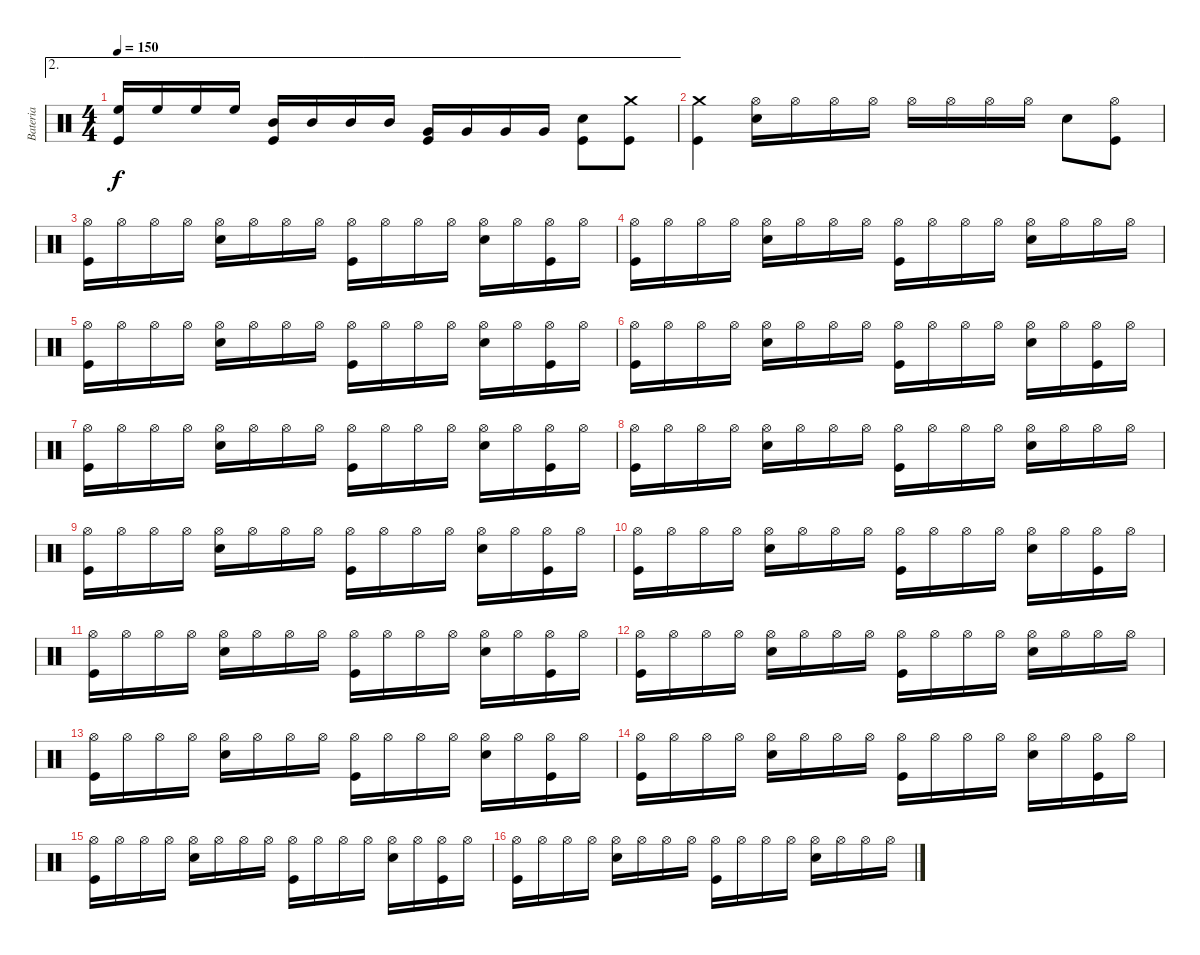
\track ("Bateria" "Bateria") {instrument percussion}
\staff {score}
\articulation defaults
\ae 2
\ts (4 4)
\tempo 150
\clef neutral
\ks c
("High Floor Tom (hit)" "Kick (hit)").16{dy f} "High Floor Tom (hit)".16 "High Floor Tom (hit)".16 "High Floor Tom (hit)".16 ("Mid Tom (hit)" "Kick (hit)").16 "Mid Tom (hit)".16 "Mid Tom (hit)".16 "Mid Tom (hit)".16 ("Very Low Tom (hit)" "Kick (hit)").16 "Very Low Tom (hit)".16 "Very Low Tom (hit)".16 "Very Low Tom (hit)".16 ("Snare (hit) 2" "Kick (hit)").8 ("Crash medium (hit)" "Kick (hit)").8 |
("Crash medium (hit)" "Kick (hit)").4 ("Hi-Hat (open)" "Snare (hit) 2").16 "Hi-Hat (open)".16 "Hi-Hat (open)".16 "Hi-Hat (open)".16 "Hi-Hat (open)".16 "Hi-Hat (open)".16 "Hi-Hat (open)".16 "Hi-Hat (open)".16 "Snare (hit) 2".8 ("Hi-Hat (open)" "Kick (hit)").8 |
("Hi-Hat (open)" "Kick (hit)").16 "Hi-Hat (open)".16 "Hi-Hat (open)".16 "Hi-Hat (open)".16 ("Hi-Hat (open)" "Snare (hit) 2").16 "Hi-Hat (open)".16 "Hi-Hat (open)".16 "Hi-Hat (open)".16 ("Hi-Hat (open)" "Kick (hit)").16 "Hi-Hat (open)".16 "Hi-Hat (open)".16 "Hi-Hat (open)".16 ("Hi-Hat (open)" "Snare (hit) 2").16 "Hi-Hat (open)".16 ("Hi-Hat (open)" "Kick (hit)").16 "Hi-Hat (open)".16 |
("Hi-Hat (open)" "Kick (hit)").16 "Hi-Hat (open)".16 "Hi-Hat (open)".16 "Hi-Hat (open)".16 ("Hi-Hat (open)" "Snare (hit) 2").16 "Hi-Hat (open)".16 "Hi-Hat (open)".16 "Hi-Hat (open)".16 ("Hi-Hat (open)" "Kick (hit)").16 "Hi-Hat (open)".16 "Hi-Hat (open)".16 "Hi-Hat (open)".16 ("Hi-Hat (open)" "Snare (hit) 2").16 "Hi-Hat (open)".16 "Hi-Hat (open)".16 "Hi-Hat (open)".16 |
("Hi-Hat (open)" "Kick (hit)").16 "Hi-Hat (open)".16 "Hi-Hat (open)".16 "Hi-Hat (open)".16 ("Hi-Hat (open)" "Snare (hit) 2").16 "Hi-Hat (open)".16 "Hi-Hat (open)".16 "Hi-Hat (open)".16 ("Hi-Hat (open)" "Kick (hit)").16 "Hi-Hat (open)".16 "Hi-Hat (open)".16 "Hi-Hat (open)".16 ("Hi-Hat (open)" "Snare (hit) 2").16 "Hi-Hat (open)".16 ("Hi-Hat (open)" "Kick (hit)").16 "Hi-Hat (open)".16 |
("Hi-Hat (open)" "Kick (hit)").16 "Hi-Hat (open)".16 "Hi-Hat (open)".16 "Hi-Hat (open)".16 ("Hi-Hat (open)" "Snare (hit) 2").16 "Hi-Hat (open)".16 "Hi-Hat (open)".16 "Hi-Hat (open)".16 ("Hi-Hat (open)" "Kick (hit)").16 "Hi-Hat (open)".16 "Hi-Hat (open)".16 "Hi-Hat (open)".16 ("Hi-Hat (open)" "Snare (hit) 2").16 "Hi-Hat (open)".16 ("Hi-Hat (open)" "Kick (hit)").16 "Hi-Hat (open)".16 |
("Hi-Hat (open)" "Kick (hit)").16 "Hi-Hat (open)".16 "Hi-Hat (open)".16 "Hi-Hat (open)".16 ("Hi-Hat (open)" "Snare (hit) 2").16 "Hi-Hat (open)".16 "Hi-Hat (open)".16 "Hi-Hat (open)".16 ("Hi-Hat (open)" "Kick (hit)").16 "Hi-Hat (open)".16 "Hi-Hat (open)".16 "Hi-Hat (open)".16 ("Hi-Hat (open)" "Snare (hit) 2").16 "Hi-Hat (open)".16 ("Hi-Hat (open)" "Kick (hit)").16 "Hi-Hat (open)".16 |
("Hi-Hat (open)" "Kick (hit)").16 "Hi-Hat (open)".16 "Hi-Hat (open)".16 "Hi-Hat (open)".16 ("Hi-Hat (open)" "Snare (hit) 2").16 "Hi-Hat (open)".16 "Hi-Hat (open)".16 "Hi-Hat (open)".16 ("Hi-Hat (open)" "Kick (hit)").16 "Hi-Hat (open)".16 "Hi-Hat (open)".16 "Hi-Hat (open)".16 ("Hi-Hat (open)" "Snare (hit) 2").16 "Hi-Hat (open)".16 "Hi-Hat (open)".16 "Hi-Hat (open)".16 |
("Hi-Hat (open)" "Kick (hit)").16 "Hi-Hat (open)".16 "Hi-Hat (open)".16 "Hi-Hat (open)".16 ("Hi-Hat (open)" "Snare (hit) 2").16 "Hi-Hat (open)".16 "Hi-Hat (open)".16 "Hi-Hat (open)".16 ("Hi-Hat (open)" "Kick (hit)").16 "Hi-Hat (open)".16 "Hi-Hat (open)".16 "Hi-Hat (open)".16 ("Hi-Hat (open)" "Snare (hit) 2").16 "Hi-Hat (open)".16 ("Hi-Hat (open)" "Kick (hit)").16 "Hi-Hat (open)".16 |
("Hi-Hat (open)" "Kick (hit)").16 "Hi-Hat (open)".16 "Hi-Hat (open)".16 "Hi-Hat (open)".16 ("Hi-Hat (open)" "Snare (hit) 2").16 "Hi-Hat (open)".16 "Hi-Hat (open)".16 "Hi-Hat (open)".16 ("Hi-Hat (open)" "Kick (hit)").16 "Hi-Hat (open)".16 "Hi-Hat (open)".16 "Hi-Hat (open)".16 ("Hi-Hat (open)" "Snare (hit) 2").16 "Hi-Hat (open)".16 ("Hi-Hat (open)" "Kick (hit)").16 "Hi-Hat (open)".16 |
("Hi-Hat (open)" "Kick (hit)").16 "Hi-Hat (open)".16 "Hi-Hat (open)".16 "Hi-Hat (open)".16 ("Hi-Hat (open)" "Snare (hit) 2").16 "Hi-Hat (open)".16 "Hi-Hat (open)".16 "Hi-Hat (open)".16 ("Hi-Hat (open)" "Kick (hit)").16 "Hi-Hat (open)".16 "Hi-Hat (open)".16 "Hi-Hat (open)".16 ("Hi-Hat (open)" "Snare (hit) 2").16 "Hi-Hat (open)".16 ("Hi-Hat (open)" "Kick (hit)").16 "Hi-Hat (open)".16 |
("Hi-Hat (open)" "Kick (hit)").16 "Hi-Hat (open)".16 "Hi-Hat (open)".16 "Hi-Hat (open)".16 ("Hi-Hat (open)" "Snare (hit) 2").16 "Hi-Hat (open)".16 "Hi-Hat (open)".16 "Hi-Hat (open)".16 ("Hi-Hat (open)" "Kick (hit)").16 "Hi-Hat (open)".16 "Hi-Hat (open)".16 "Hi-Hat (open)".16 ("Hi-Hat (open)" "Snare (hit) 2").16 "Hi-Hat (open)".16 "Hi-Hat (open)".16 "Hi-Hat (open)".16 |
("Hi-Hat (open)" "Kick (hit)").16 "Hi-Hat (open)".16 "Hi-Hat (open)".16 "Hi-Hat (open)".16 ("Hi-Hat (open)" "Snare (hit) 2").16 "Hi-Hat (open)".16 "Hi-Hat (open)".16 "Hi-Hat (open)".16 ("Hi-Hat (open)" "Kick (hit)").16 "Hi-Hat (open)".16 "Hi-Hat (open)".16 "Hi-Hat (open)".16 ("Hi-Hat (open)" "Snare (hit) 2").16 "Hi-Hat (open)".16 ("Hi-Hat (open)" "Kick (hit)").16 "Hi-Hat (open)".16 |
("Hi-Hat (open)" "Kick (hit)").16 "Hi-Hat (open)".16 "Hi-Hat (open)".16 "Hi-Hat (open)".16 ("Hi-Hat (open)" "Snare (hit) 2").16 "Hi-Hat (open)".16 "Hi-Hat (open)".16 "Hi-Hat (open)".16 ("Hi-Hat (open)" "Kick (hit)").16 "Hi-Hat (open)".16 "Hi-Hat (open)".16 "Hi-Hat (open)".16 ("Hi-Hat (open)" "Snare (hit) 2").16 "Hi-Hat (open)".16 ("Hi-Hat (open)" "Kick (hit)").16 "Hi-Hat (open)".16 |
("Hi-Hat (open)" "Kick (hit)").16 "Hi-Hat (open)".16 "Hi-Hat (open)".16 "Hi-Hat (open)".16 ("Hi-Hat (open)" "Snare (hit) 2").16 "Hi-Hat (open)".16 "Hi-Hat (open)".16 "Hi-Hat (open)".16 ("Hi-Hat (open)" "Kick (hit)").16 "Hi-Hat (open)".16 "Hi-Hat (open)".16 "Hi-Hat (open)".16 ("Hi-Hat (open)" "Snare (hit) 2").16 "Hi-Hat (open)".16 ("Hi-Hat (open)" "Kick (hit)").16 "Hi-Hat (open)".16 |
("Hi-Hat (open)" "Kick (hit)").16 "Hi-Hat (open)".16 "Hi-Hat (open)".16 "Hi-Hat (open)".16 ("Hi-Hat (open)" "Snare (hit) 2").16 "Hi-Hat (open)".16 "Hi-Hat (open)".16 "Hi-Hat (open)".16 ("Hi-Hat (open)" "Kick (hit)").16 "Hi-Hat (open)".16 "Hi-Hat (open)".16 "Hi-Hat (open)".16 ("Hi-Hat (open)" "Snare (hit) 2").16 "Hi-Hat (open)".16 "Hi-Hat (open)".16 "Hi-Hat (open)".16
